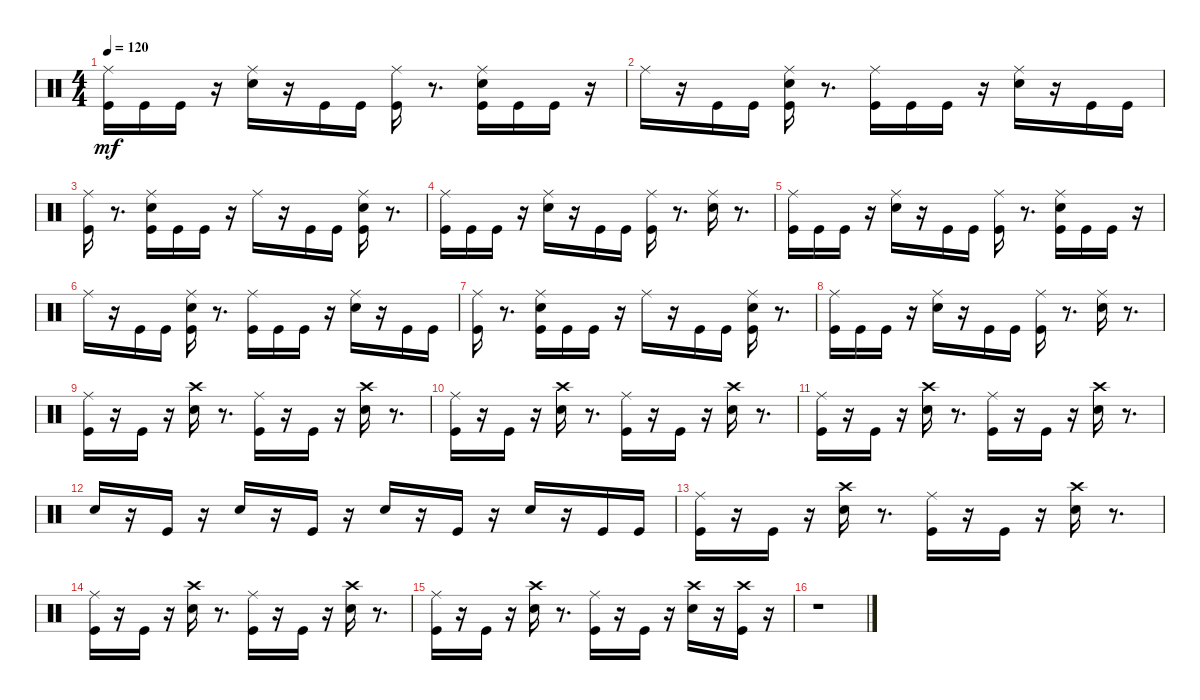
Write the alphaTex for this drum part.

\track "" {instrument percussion}
\staff {score}
\articulation defaults
\ts (4 4)
\tempo 120
\clef neutral
\ks c
("Ride (middle)" "Kick (hit)").16{dy mf} "Kick (hit)".16 "Kick (hit)".16 r.16 ("Ride (middle)" "Snare (hit) 2").16 r.16 "Kick (hit)".16 "Kick (hit)".16 ("Ride (middle)" "Kick (hit)").16 r.8{d} ("Ride (middle)" "Snare (hit) 2" "Kick (hit)").16 "Kick (hit)".16 "Kick (hit)".16 r.16 |
"Ride (middle)".16 r.16 "Kick (hit)".16 "Kick (hit)".16 ("Ride (middle)" "Snare (hit) 2" "Kick (hit)").16 r.8{d} ("Ride (middle)" "Kick (hit)").16 "Kick (hit)".16 "Kick (hit)".16 r.16 ("Ride (middle)" "Snare (hit) 2").16 r.16 "Kick (hit)".16 "Kick (hit)".16 |
("Ride (middle)" "Kick (hit)").16 r.8{d} ("Ride (middle)" "Snare (hit) 2" "Kick (hit)").16 "Kick (hit)".16 "Kick (hit)".16 r.16 "Ride (middle)".16 r.16 "Kick (hit)".16 "Kick (hit)".16 ("Ride (middle)" "Snare (hit) 2" "Kick (hit)").16 r.8{d} |
("Ride (middle)" "Kick (hit)").16 "Kick (hit)".16 "Kick (hit)".16 r.16 ("Ride (middle)" "Snare (hit) 2").16 r.16 "Kick (hit)".16 "Kick (hit)".16 ("Ride (middle)" "Kick (hit)").16 r.8{d} ("Ride (middle)" "Snare (hit) 2").16 r.8{d} |
("Ride (middle)" "Kick (hit)").16 "Kick (hit)".16 "Kick (hit)".16 r.16 ("Ride (middle)" "Snare (hit) 2").16 r.16 "Kick (hit)".16 "Kick (hit)".16 ("Ride (middle)" "Kick (hit)").16 r.8{d} ("Ride (middle)" "Snare (hit) 2" "Kick (hit)").16 "Kick (hit)".16 "Kick (hit)".16 r.16 |
"Ride (middle)".16 r.16 "Kick (hit)".16 "Kick (hit)".16 ("Ride (middle)" "Snare (hit) 2" "Kick (hit)").16 r.8{d} ("Ride (middle)" "Kick (hit)").16 "Kick (hit)".16 "Kick (hit)".16 r.16 ("Ride (middle)" "Snare (hit) 2").16 r.16 "Kick (hit)".16 "Kick (hit)".16 |
("Ride (middle)" "Kick (hit)").16 r.8{d} ("Ride (middle)" "Snare (hit) 2" "Kick (hit)").16 "Kick (hit)".16 "Kick (hit)".16 r.16 "Ride (middle)".16 r.16 "Kick (hit)".16 "Kick (hit)".16 ("Ride (middle)" "Snare (hit) 2" "Kick (hit)").16 r.8{d} |
("Ride (middle)" "Kick (hit)").16 "Kick (hit)".16 "Kick (hit)".16 r.16 ("Ride (middle)" "Snare (hit) 2").16 r.16 "Kick (hit)".16 "Kick (hit)".16 ("Ride (middle)" "Kick (hit)").16 r.8{d} ("Ride (middle)" "Snare (hit) 2").16 r.8{d} |
("Ride (middle)" "Kick (hit)").16 r.16 "Kick (hit)".16 r.16 ("Crash high (hit)" "Snare (hit) 2").16 r.8{d} ("Ride (middle)" "Kick (hit)").16 r.16 "Kick (hit)".16 r.16 ("Crash high (hit)" "Snare (hit) 2").16 r.8{d} |
("Ride (middle)" "Kick (hit)").16 r.16 "Kick (hit)".16 r.16 ("Crash high (hit)" "Snare (hit) 2").16 r.8{d} ("Ride (middle)" "Kick (hit)").16 r.16 "Kick (hit)".16 r.16 ("Crash high (hit)" "Snare (hit) 2").16 r.8{d} |
("Ride (middle)" "Kick (hit)").16 r.16 "Kick (hit)".16 r.16 ("Crash high (hit)" "Snare (hit) 2").16 r.8{d} ("Ride (middle)" "Kick (hit)").16 r.16 "Kick (hit)".16 r.16 ("Crash high (hit)" "Snare (hit) 2").16 r.8{d} |
"Snare (hit) 2".16 r.16 "Kick (hit)".16 r.16 "Snare (hit) 2".16 r.16 "Kick (hit)".16 r.16 "Snare (hit) 2".16 r.16 "Kick (hit)".16 r.16 "Snare (hit) 2".16 r.16 "Kick (hit)".16 "Kick (hit)".16 |
("Ride (middle)" "Kick (hit)").16 r.16 "Kick (hit)".16 r.16 ("Crash high (hit)" "Snare (hit) 2").16 r.8{d} ("Ride (middle)" "Kick (hit)").16 r.16 "Kick (hit)".16 r.16 ("Crash high (hit)" "Snare (hit) 2").16 r.8{d} |
("Ride (middle)" "Kick (hit)").16 r.16 "Kick (hit)".16 r.16 ("Crash high (hit)" "Snare (hit) 2").16 r.8{d} ("Ride (middle)" "Kick (hit)").16 r.16 "Kick (hit)".16 r.16 ("Crash high (hit)" "Snare (hit) 2").16 r.8{d} |
("Ride (middle)" "Kick (hit)").16 r.16 "Kick (hit)".16 r.16 ("Crash high (hit)" "Snare (hit) 2").16 r.8{d} ("Ride (middle)" "Kick (hit)").16 r.16 "Kick (hit)".16 r.16 ("Crash high (hit)" "Snare (hit) 2").16 r.16 ("Crash high (hit)" "Kick (hit)").16 r.16 |
r.1
